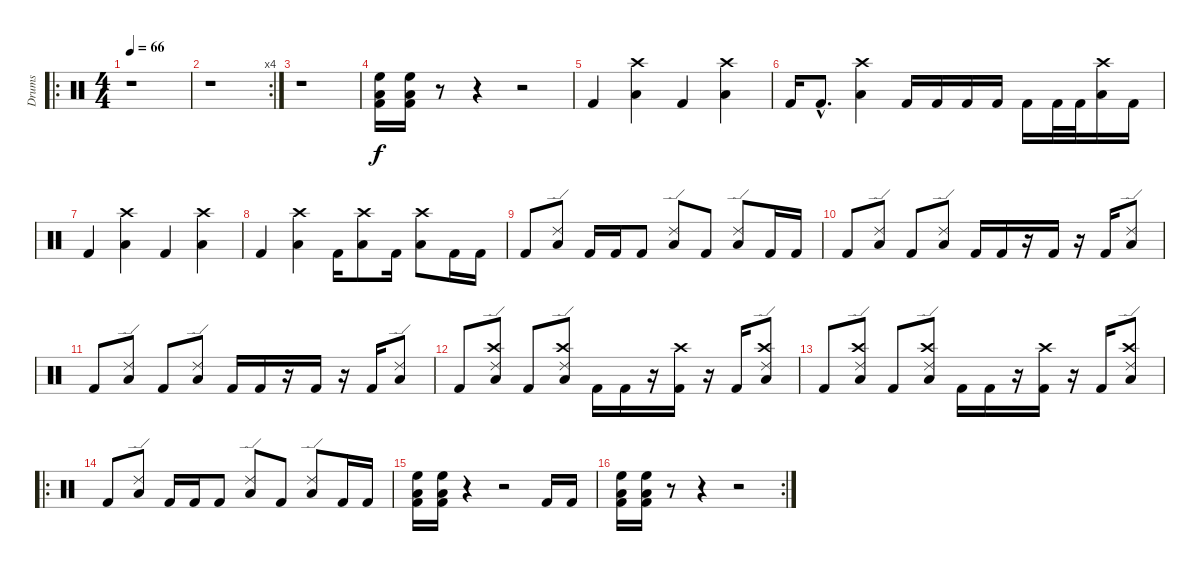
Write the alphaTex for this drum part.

\track ("Drums" "Drums") {instrument percussion}
\staff {score}
\articulation defaults
\ro
\ts (4 4)
\tempo 66
\clef neutral
\ks c
r.1{dy f} |
\rc 4
r.1 |
r.1 |
("High Floor Tom (hit)" "Low Tom (hit)" "Kick (hit) 2").16 ("High Floor Tom (hit)" "Low Tom (hit)" "Kick (hit) 2").16 r.8 r.4 r.2 |
"Kick (hit) 2".4 ("Crash high (hit)" "Low Tom (hit)").4 "Kick (hit) 2".4 ("Crash high (hit)" "Low Tom (hit)").4 |
"Kick (hit) 2".16 "Kick (hit) 2"{hac}.8{d} ("Crash high (hit)" "Low Tom (hit)").4 "Kick (hit) 2".16 "Kick (hit) 2".16 "Kick (hit) 2".16 "Kick (hit) 2".16 "Kick (hit) 2".16 "Kick (hit) 2".32 "Kick (hit) 2".32 ("Crash high (hit)" "Low Tom (hit)").16 "Kick (hit) 2".16 |
"Kick (hit) 2".4 ("Crash high (hit)" "Low Tom (hit)").4 "Kick (hit) 2".4 ("Crash high (hit)" "Low Tom (hit)").4 |
"Kick (hit) 2".4 ("Crash high (hit)" "Low Tom (hit)").4 "Kick (hit) 2".16 ("Crash high (hit)" "Low Tom (hit)").8 "Kick (hit) 2".16 ("Crash high (hit)" "Low Tom (hit)").8 "Kick (hit) 2".16 "Kick (hit) 2".16 |
"Kick (hit) 2".8 ("Ride (edge) 2" "Low Tom (hit)").8 "Kick (hit) 2".16 "Kick (hit) 2".16 "Kick (hit) 2".8 ("Ride (edge) 2" "Low Tom (hit)").8 "Kick (hit) 2".8 ("Ride (edge) 2" "Low Tom (hit)").8 "Kick (hit) 2".16 "Kick (hit) 2".16 |
"Kick (hit) 2".8 ("Ride (edge) 2" "Low Tom (hit)").8 "Kick (hit) 2".8 ("Ride (edge) 2" "Low Tom (hit)").8 "Kick (hit) 2".16 "Kick (hit) 2".16 r.16 "Kick (hit) 2".16 r.16 "Kick (hit) 2".16 ("Ride (edge) 2" "Low Tom (hit)").8 |
"Kick (hit) 2".8 ("Ride (edge) 2" "Low Tom (hit)").8 "Kick (hit) 2".8 ("Ride (edge) 2" "Low Tom (hit)").8 "Kick (hit) 2".16 "Kick (hit) 2".16 r.16 "Kick (hit) 2".16 r.16 "Kick (hit) 2".16 ("Ride (edge) 2" "Low Tom (hit)").8 |
"Kick (hit) 2".8 ("Crash high (hit)" "Ride (edge) 2" "Low Tom (hit)").8 "Kick (hit) 2".8 ("Crash high (hit)" "Ride (edge) 2" "Low Tom (hit)").8 "Kick (hit) 2".16 "Kick (hit) 2".16 r.16 ("Crash high (hit)" "Kick (hit) 2").16 r.16 "Kick (hit) 2".16 ("Crash high (hit)" "Ride (edge) 2" "Low Tom (hit)").8 |
"Kick (hit) 2".8 ("Crash high (hit)" "Ride (edge) 2" "Low Tom (hit)").8 "Kick (hit) 2".8 ("Crash high (hit)" "Ride (edge) 2" "Low Tom (hit)").8 "Kick (hit) 2".16 "Kick (hit) 2".16 r.16 ("Crash high (hit)" "Kick (hit) 2").16 r.16 "Kick (hit) 2".16 ("Crash high (hit)" "Ride (edge) 2" "Low Tom (hit)").8 |
\ro "Kick (hit) 2".8
("Ride (edge) 2" "Low Tom (hit)").8 "Kick (hit) 2".16 "Kick (hit) 2".16 "Kick (hit) 2".8 ("Ride (edge) 2" "Low Tom (hit)").8 "Kick (hit) 2".8 ("Ride (edge) 2" "Low Tom (hit)").8 "Kick (hit) 2".16 "Kick (hit) 2".16 |
("High Floor Tom (hit)" "Low Tom (hit)" "Kick (hit) 2").16 ("High Floor Tom (hit)" "Low Tom (hit)" "Kick (hit) 2").16 r.4 r.2 "Kick (hit) 2".16 "Kick (hit) 2".16 |
\rc 2
("High Floor Tom (hit)" "Low Tom (hit)" "Kick (hit) 2").16 ("High Floor Tom (hit)" "Low Tom (hit)" "Kick (hit) 2").16 r.8 r.4 r.2
